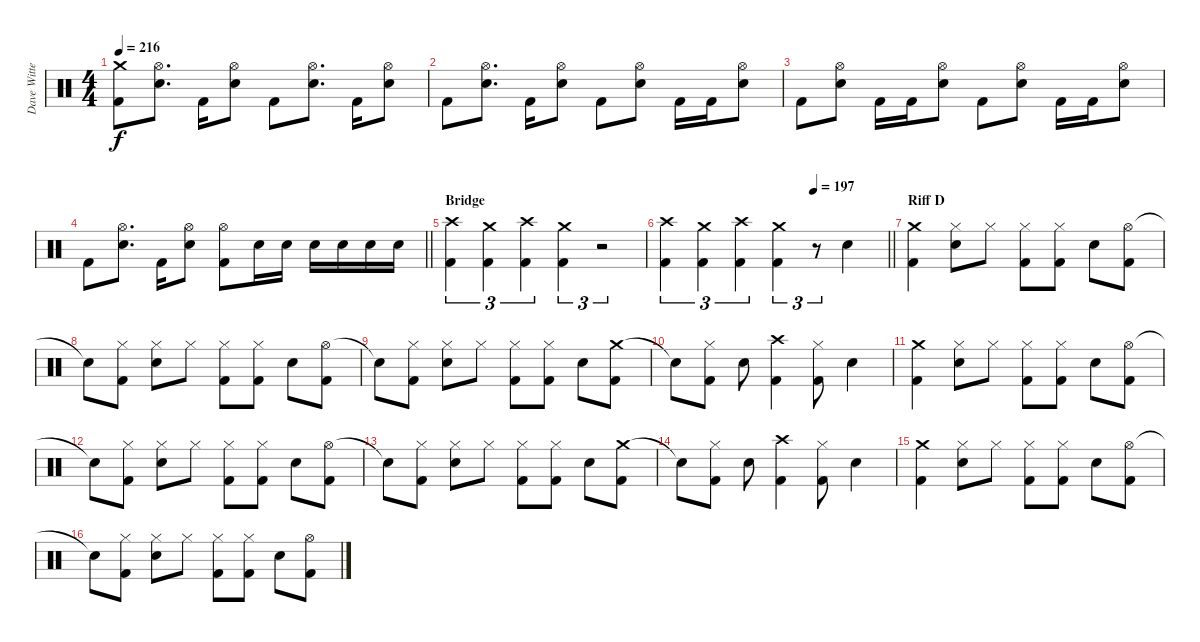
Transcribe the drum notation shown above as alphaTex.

\track ("Dave Witte" "Dave Witte") {instrument percussion}
\staff {score}
\articulation defaults
\ts (4 4)
\tempo 216
\clef neutral
\ks c
("Crash medium (hit)" "Kick (hit) 2").8{dy f} ("Hi-Hat (open)" "Electric Snare (hit)").8{d} "Kick (hit) 2".16 ("Hi-Hat (open)" "Electric Snare (hit)").8 "Kick (hit) 2".8 ("Hi-Hat (open)" "Electric Snare (hit)").8{d} "Kick (hit) 2".16 ("Hi-Hat (open)" "Electric Snare (hit)").8 |
"Kick (hit) 2".8 ("Hi-Hat (open)" "Electric Snare (hit)").8{d} "Kick (hit) 2".16 ("Hi-Hat (open)" "Electric Snare (hit)").8 "Kick (hit) 2".8 ("Hi-Hat (open)" "Electric Snare (hit)").8 "Kick (hit) 2".16 "Kick (hit) 2".16 ("Hi-Hat (open)" "Electric Snare (hit)").8 |
"Kick (hit) 2".8 ("Hi-Hat (open)" "Electric Snare (hit)").8 "Kick (hit) 2".16 "Kick (hit) 2".16 ("Hi-Hat (open)" "Electric Snare (hit)").8 "Kick (hit) 2".8 ("Hi-Hat (open)" "Electric Snare (hit)").8 "Kick (hit) 2".16 "Kick (hit) 2".16 ("Hi-Hat (open)" "Electric Snare (hit)").8 |
\barLineRight lightlight "Kick (hit) 2".8
("Hi-Hat (open)" "Electric Snare (hit)").8{d} "Kick (hit) 2".16 ("Hi-Hat (open)" "Electric Snare (hit)").8 ("Hi-Hat (open)" "Kick (hit) 2").8 "Electric Snare (hit)".16 "Electric Snare (hit)".16 "Electric Snare (hit)".16 "Electric Snare (hit)".16 "Electric Snare (hit)".16 "Electric Snare (hit)".16 |
\section ("" "Bridge")
("Crash high (hit)" "Kick (hit) 2").4{tu (3 2)} ("Crash medium (hit)" "Kick (hit) 2").4{tu (3 2)} ("Crash high (hit)" "Kick (hit) 2").4{tu (3 2)} ("Crash medium (hit)" "Kick (hit) 2").4{tu (3 2)} r.2{tu (3 2) volume 0} |
\tempo (197 0.6666666666666666)
\barLineRight lightlight
("Crash high (hit)" "Kick (hit) 2").4{tu (3 2) volume 14} ("Crash medium (hit)" "Kick (hit) 2").4{tu (3 2)} ("Crash high (hit)" "Kick (hit) 2").4{tu (3 2)} ("Crash medium (hit)" "Kick (hit) 2").4{tu (3 2)} r.8{tu (3 2) volume 0} "Electric Snare (hit)".4{volume 14} |
\section ("" "Riff D")
("Crash medium (hit)" "Kick (hit) 2").4 ("Hi-Hat (closed)" "Electric Snare (hit)").8 "Hi-Hat (closed)".8 ("Hi-Hat (closed)" "Kick (hit) 2").8 ("Hi-Hat (closed)" "Kick (hit) 2").8 "Electric Snare (hit)".8 ("Hi-Hat (open)" "Kick (hit) 2").8 |
"Snare (hit)"{t}.8 ("Hi-Hat (closed)" "Kick (hit) 2").8 ("Hi-Hat (closed)" "Electric Snare (hit)").8 "Hi-Hat (closed)".8 ("Hi-Hat (closed)" "Kick (hit) 2").8 ("Hi-Hat (closed)" "Kick (hit) 2").8 "Electric Snare (hit)".8 ("Hi-Hat (open)" "Kick (hit) 2").8 |
"Snare (hit)"{t}.8 ("Hi-Hat (closed)" "Kick (hit) 2").8 ("Hi-Hat (closed)" "Electric Snare (hit)").8 "Hi-Hat (closed)".8 ("Hi-Hat (closed)" "Kick (hit) 2").8 ("Hi-Hat (closed)" "Kick (hit) 2").8 "Electric Snare (hit)".8 ("Crash medium (hit)" "Kick (hit) 2").8 |
"Snare (hit)"{t}.8 ("Hi-Hat (closed)" "Kick (hit) 2").8 "Electric Snare (hit)".8 ("Crash high (hit)" "Kick (hit) 2").4 ("Hi-Hat (closed)" "Kick (hit) 2").8 "Electric Snare (hit)".4 |
("Crash medium (hit)" "Kick (hit) 2").4 ("Hi-Hat (closed)" "Electric Snare (hit)").8 "Hi-Hat (closed)".8 ("Hi-Hat (closed)" "Kick (hit) 2").8 ("Hi-Hat (closed)" "Kick (hit) 2").8 "Electric Snare (hit)".8 ("Hi-Hat (open)" "Kick (hit) 2").8 |
"Snare (hit)"{t}.8 ("Hi-Hat (closed)" "Kick (hit) 2").8 ("Hi-Hat (closed)" "Electric Snare (hit)").8 "Hi-Hat (closed)".8 ("Hi-Hat (closed)" "Kick (hit) 2").8 ("Hi-Hat (closed)" "Kick (hit) 2").8 "Electric Snare (hit)".8 ("Hi-Hat (open)" "Kick (hit) 2").8 |
"Snare (hit)"{t}.8 ("Hi-Hat (closed)" "Kick (hit) 2").8 ("Hi-Hat (closed)" "Electric Snare (hit)").8 "Hi-Hat (closed)".8 ("Hi-Hat (closed)" "Kick (hit) 2").8 ("Hi-Hat (closed)" "Kick (hit) 2").8 "Electric Snare (hit)".8 ("Crash medium (hit)" "Kick (hit) 2").8 |
"Snare (hit)"{t}.8 ("Hi-Hat (closed)" "Kick (hit) 2").8 "Electric Snare (hit)".8 ("Crash high (hit)" "Kick (hit) 2").4 ("Hi-Hat (closed)" "Kick (hit) 2").8 "Electric Snare (hit)".4 |
("Crash medium (hit)" "Kick (hit) 2").4 ("Hi-Hat (closed)" "Electric Snare (hit)").8 "Hi-Hat (closed)".8 ("Hi-Hat (closed)" "Kick (hit) 2").8 ("Hi-Hat (closed)" "Kick (hit) 2").8 "Electric Snare (hit)".8 ("Hi-Hat (open)" "Kick (hit) 2").8 |
"Snare (hit)"{t}.8 ("Hi-Hat (closed)" "Kick (hit) 2").8 ("Hi-Hat (closed)" "Electric Snare (hit)").8 "Hi-Hat (closed)".8 ("Hi-Hat (closed)" "Kick (hit) 2").8 ("Hi-Hat (closed)" "Kick (hit) 2").8 "Electric Snare (hit)".8 ("Hi-Hat (open)" "Kick (hit) 2").8
